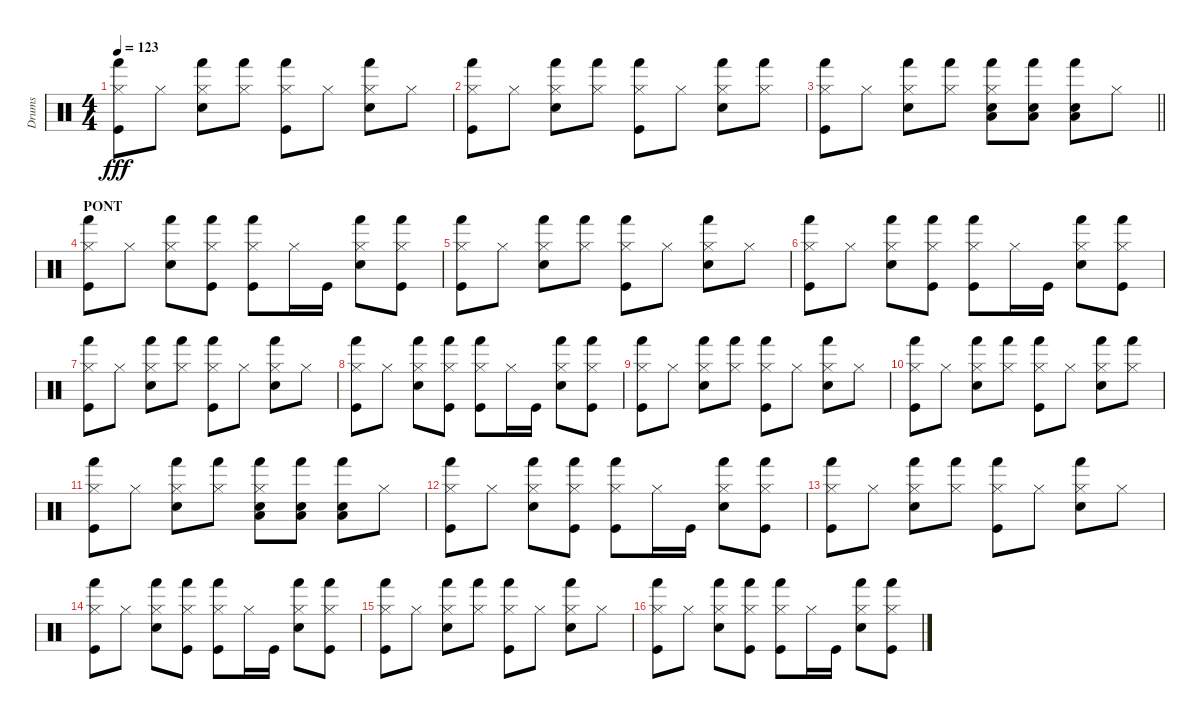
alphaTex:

\track ("Drums" "Drums") {instrument percussion}
\staff {score}
\articulation defaults
\ts (4 4)
\tempo 123
\clef neutral
\ks c
("Hi-Hat (closed)" "Kick (hit)" "Hand (hit)").8{dy fff} "Hi-Hat (closed)".8 ("Electric Snare (hit)" "Hand (hit)" "Hi-Hat (closed)").8 ("Hi-Hat (closed)" "Hand (hit)").8 ("Hi-Hat (closed)" "Kick (hit)" "Hand (hit)").8 "Hi-Hat (closed)".8 ("Electric Snare (hit)" "Hand (hit)" "Hi-Hat (closed)").8 "Hi-Hat (closed)".8 |
("Hand (hit)" "Kick (hit)" "Hi-Hat (closed)").8 "Hi-Hat (closed)".8 ("Electric Snare (hit)" "Hi-Hat (closed)" "Hand (hit)").8 ("Hand (hit)" "Hi-Hat (closed)").8 ("Hi-Hat (closed)" "Hand (hit)" "Kick (hit)").8 "Hi-Hat (closed)".8 ("Hi-Hat (closed)" "Electric Snare (hit)" "Hand (hit)").8 ("Hi-Hat (closed)" "Hand (hit)").8 |
\barLineRight lightlight
("Hi-Hat (closed)" "Kick (hit)" "Hand (hit)").8 "Hi-Hat (closed)".8 ("Electric Snare (hit)" "Hand (hit)" "Hi-Hat (closed)").8 ("Hand (hit)" "Hi-Hat (closed)").8 ("Electric Snare (hit)" "Low Tom (hit)" "Hi-Hat (closed)" "Hand (hit)").8 ("Electric Snare (hit)" "Low Tom (hit)" "Hand (hit)").8 ("Hand (hit)" "Low Tom (hit)" "Electric Snare (hit)").8 "Hi-Hat (closed)".8 |
\section ("" "PONT")
("Hand (hit)" "Hi-Hat (closed)" "Kick (hit)").8 "Hi-Hat (closed)".8 ("Hi-Hat (closed)" "Hand (hit)" "Electric Snare (hit)").8 ("Hi-Hat (closed)" "Hand (hit)" "Kick (hit)").8 ("Hi-Hat (closed)" "Hand (hit)" "Kick (hit)").8 "Hi-Hat (closed)".16 "Kick (hit)".16 ("Hi-Hat (closed)" "Electric Snare (hit)" "Hand (hit)").8 ("Hi-Hat (closed)" "Hand (hit)" "Kick (hit)").8 |
("Hi-Hat (closed)" "Kick (hit)" "Hand (hit)").8 "Hi-Hat (closed)".8 ("Electric Snare (hit)" "Hand (hit)" "Hi-Hat (closed)").8 ("Hi-Hat (closed)" "Hand (hit)").8 ("Hi-Hat (closed)" "Kick (hit)" "Hand (hit)").8 "Hi-Hat (closed)".8 ("Electric Snare (hit)" "Hand (hit)" "Hi-Hat (closed)").8 "Hi-Hat (closed)".8 |
("Hand (hit)" "Hi-Hat (closed)" "Kick (hit)").8 "Hi-Hat (closed)".8 ("Hi-Hat (closed)" "Hand (hit)" "Electric Snare (hit)").8 ("Hi-Hat (closed)" "Hand (hit)" "Kick (hit)").8 ("Hi-Hat (closed)" "Hand (hit)" "Kick (hit)").8 "Hi-Hat (closed)".16 "Kick (hit)".16 ("Hi-Hat (closed)" "Electric Snare (hit)" "Hand (hit)").8 ("Hi-Hat (closed)" "Hand (hit)" "Kick (hit)").8 |
("Hi-Hat (closed)" "Kick (hit)" "Hand (hit)").8 "Hi-Hat (closed)".8 ("Electric Snare (hit)" "Hand (hit)" "Hi-Hat (closed)").8 ("Hi-Hat (closed)" "Hand (hit)").8 ("Hi-Hat (closed)" "Kick (hit)" "Hand (hit)").8 "Hi-Hat (closed)".8 ("Electric Snare (hit)" "Hand (hit)" "Hi-Hat (closed)").8 "Hi-Hat (closed)".8 |
("Hand (hit)" "Hi-Hat (closed)" "Kick (hit)").8 "Hi-Hat (closed)".8 ("Hi-Hat (closed)" "Hand (hit)" "Electric Snare (hit)").8 ("Hi-Hat (closed)" "Hand (hit)" "Kick (hit)").8 ("Hi-Hat (closed)" "Hand (hit)" "Kick (hit)").8 "Hi-Hat (closed)".16 "Kick (hit)".16 ("Hi-Hat (closed)" "Electric Snare (hit)" "Hand (hit)").8 ("Hi-Hat (closed)" "Hand (hit)" "Kick (hit)").8 |
("Hi-Hat (closed)" "Kick (hit)" "Hand (hit)").8 "Hi-Hat (closed)".8 ("Electric Snare (hit)" "Hand (hit)" "Hi-Hat (closed)").8 ("Hi-Hat (closed)" "Hand (hit)").8 ("Hi-Hat (closed)" "Kick (hit)" "Hand (hit)").8 "Hi-Hat (closed)".8 ("Electric Snare (hit)" "Hand (hit)" "Hi-Hat (closed)").8 "Hi-Hat (closed)".8 |
("Kick (hit)" "Hand (hit)" "Hi-Hat (closed)").8 "Hi-Hat (closed)".8 ("Hand (hit)" "Hi-Hat (closed)" "Electric Snare (hit)").8 ("Hand (hit)" "Hi-Hat (closed)").8 ("Hi-Hat (closed)" "Hand (hit)" "Kick (hit)").8 "Hi-Hat (closed)".8 ("Electric Snare (hit)" "Hi-Hat (closed)" "Hand (hit)").8 ("Hi-Hat (closed)" "Hand (hit)").8 |
("Hi-Hat (closed)" "Kick (hit)" "Hand (hit)").8 "Hi-Hat (closed)".8 ("Electric Snare (hit)" "Hand (hit)" "Hi-Hat (closed)").8 ("Hand (hit)" "Hi-Hat (closed)").8 ("Low Tom (hit)" "Electric Snare (hit)" "Hi-Hat (closed)" "Hand (hit)").8 ("Low Tom (hit)" "Electric Snare (hit)" "Hand (hit)").8 ("Low Tom (hit)" "Electric Snare (hit)" "Hand (hit)").8 "Hi-Hat (closed)".8 |
("Hand (hit)" "Hi-Hat (closed)" "Kick (hit)").8 "Hi-Hat (closed)".8 ("Hi-Hat (closed)" "Hand (hit)" "Electric Snare (hit)").8 ("Hi-Hat (closed)" "Hand (hit)" "Kick (hit)").8 ("Hi-Hat (closed)" "Hand (hit)" "Kick (hit)").8 "Hi-Hat (closed)".16 "Kick (hit)".16 ("Hi-Hat (closed)" "Electric Snare (hit)" "Hand (hit)").8 ("Hi-Hat (closed)" "Hand (hit)" "Kick (hit)").8 |
("Hi-Hat (closed)" "Kick (hit)" "Hand (hit)").8 "Hi-Hat (closed)".8 ("Electric Snare (hit)" "Hand (hit)" "Hi-Hat (closed)").8 ("Hi-Hat (closed)" "Hand (hit)").8 ("Hi-Hat (closed)" "Kick (hit)" "Hand (hit)").8 "Hi-Hat (closed)".8 ("Electric Snare (hit)" "Hand (hit)" "Hi-Hat (closed)").8 "Hi-Hat (closed)".8 |
("Hand (hit)" "Hi-Hat (closed)" "Kick (hit)").8 "Hi-Hat (closed)".8 ("Hi-Hat (closed)" "Hand (hit)" "Electric Snare (hit)").8 ("Hi-Hat (closed)" "Hand (hit)" "Kick (hit)").8 ("Hi-Hat (closed)" "Hand (hit)" "Kick (hit)").8 "Hi-Hat (closed)".16 "Kick (hit)".16 ("Hi-Hat (closed)" "Electric Snare (hit)" "Hand (hit)").8 ("Hi-Hat (closed)" "Hand (hit)" "Kick (hit)").8 |
("Hi-Hat (closed)" "Kick (hit)" "Hand (hit)").8 "Hi-Hat (closed)".8 ("Electric Snare (hit)" "Hand (hit)" "Hi-Hat (closed)").8 ("Hi-Hat (closed)" "Hand (hit)").8 ("Hi-Hat (closed)" "Kick (hit)" "Hand (hit)").8 "Hi-Hat (closed)".8 ("Electric Snare (hit)" "Hand (hit)" "Hi-Hat (closed)").8 "Hi-Hat (closed)".8 |
("Hand (hit)" "Hi-Hat (closed)" "Kick (hit)").8 "Hi-Hat (closed)".8 ("Hi-Hat (closed)" "Hand (hit)" "Electric Snare (hit)").8 ("Hi-Hat (closed)" "Hand (hit)" "Kick (hit)").8 ("Hi-Hat (closed)" "Hand (hit)" "Kick (hit)").8 "Hi-Hat (closed)".16 "Kick (hit)".16 ("Hi-Hat (closed)" "Electric Snare (hit)" "Hand (hit)").8 ("Hi-Hat (closed)" "Hand (hit)" "Kick (hit)").8
